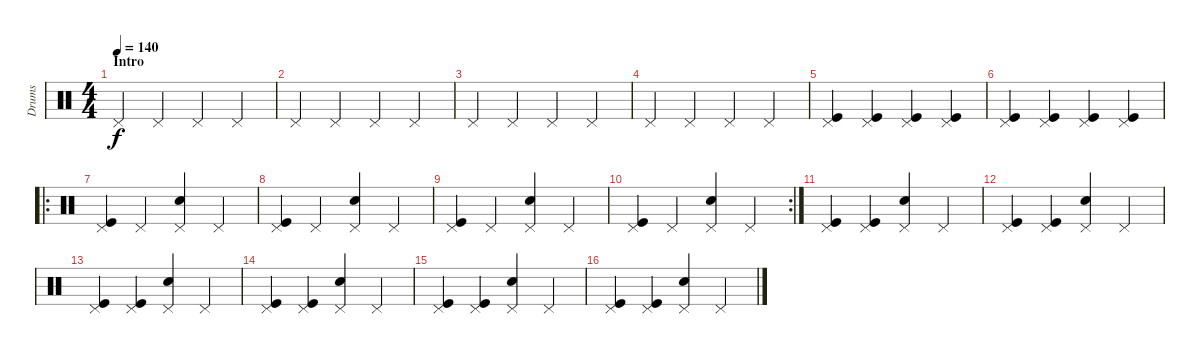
\track ("Drums" "Drums") {instrument percussion}
\staff {score}
\articulation defaults
\ts (4 4)
\section ("" "Intro")
\tempo 140
\clef neutral
\ks c "Pedal Hi-Hat (hit)".4{dy f} "Pedal Hi-Hat (hit)".4 "Pedal Hi-Hat (hit)".4 "Pedal Hi-Hat (hit)".4
|
"Pedal Hi-Hat (hit)".4 "Pedal Hi-Hat (hit)".4 "Pedal Hi-Hat (hit)".4 "Pedal Hi-Hat (hit)".4 |
"Pedal Hi-Hat (hit)".4 "Pedal Hi-Hat (hit)".4 "Pedal Hi-Hat (hit)".4 "Pedal Hi-Hat (hit)".4 |
"Pedal Hi-Hat (hit)".4 "Pedal Hi-Hat (hit)".4 "Pedal Hi-Hat (hit)".4 "Pedal Hi-Hat (hit)".4 |
("Kick (hit)" "Pedal Hi-Hat (hit)").4 ("Kick (hit)" "Pedal Hi-Hat (hit)").4 ("Kick (hit)" "Pedal Hi-Hat (hit)").4 ("Kick (hit)" "Pedal Hi-Hat (hit)").4 |
("Kick (hit)" "Pedal Hi-Hat (hit)").4 ("Kick (hit)" "Pedal Hi-Hat (hit)").4 ("Kick (hit)" "Pedal Hi-Hat (hit)").4 ("Kick (hit)" "Pedal Hi-Hat (hit)").4 |
\ro
("Kick (hit)" "Pedal Hi-Hat (hit)").4 "Pedal Hi-Hat (hit)".4 ("Snare (hit) 2" "Pedal Hi-Hat (hit)").4 "Pedal Hi-Hat (hit)".4 |
("Kick (hit)" "Pedal Hi-Hat (hit)").4 "Pedal Hi-Hat (hit)".4 ("Snare (hit) 2" "Pedal Hi-Hat (hit)").4 "Pedal Hi-Hat (hit)".4 |
("Kick (hit)" "Pedal Hi-Hat (hit)").4 "Pedal Hi-Hat (hit)".4 ("Snare (hit) 2" "Pedal Hi-Hat (hit)").4 "Pedal Hi-Hat (hit)".4 |
\rc 2
("Kick (hit)" "Pedal Hi-Hat (hit)").4 "Pedal Hi-Hat (hit)".4 ("Snare (hit) 2" "Pedal Hi-Hat (hit)").4 "Pedal Hi-Hat (hit)".4 |
("Kick (hit)" "Pedal Hi-Hat (hit)").4 ("Kick (hit)" "Pedal Hi-Hat (hit)").4 ("Snare (hit) 2" "Pedal Hi-Hat (hit)").4 "Pedal Hi-Hat (hit)".4 |
("Kick (hit)" "Pedal Hi-Hat (hit)").4 ("Kick (hit)" "Pedal Hi-Hat (hit)").4 ("Snare (hit) 2" "Pedal Hi-Hat (hit)").4 "Pedal Hi-Hat (hit)".4 |
("Kick (hit)" "Pedal Hi-Hat (hit)").4 ("Kick (hit)" "Pedal Hi-Hat (hit)").4 ("Snare (hit) 2" "Pedal Hi-Hat (hit)").4 "Pedal Hi-Hat (hit)".4 |
("Kick (hit)" "Pedal Hi-Hat (hit)").4 ("Kick (hit)" "Pedal Hi-Hat (hit)").4 ("Snare (hit) 2" "Pedal Hi-Hat (hit)").4 "Pedal Hi-Hat (hit)".4 |
("Kick (hit)" "Pedal Hi-Hat (hit)").4 ("Kick (hit)" "Pedal Hi-Hat (hit)").4 ("Snare (hit) 2" "Pedal Hi-Hat (hit)").4 "Pedal Hi-Hat (hit)".4 |
("Kick (hit)" "Pedal Hi-Hat (hit)").4 ("Kick (hit)" "Pedal Hi-Hat (hit)").4 ("Snare (hit) 2" "Pedal Hi-Hat (hit)").4 "Pedal Hi-Hat (hit)".4
